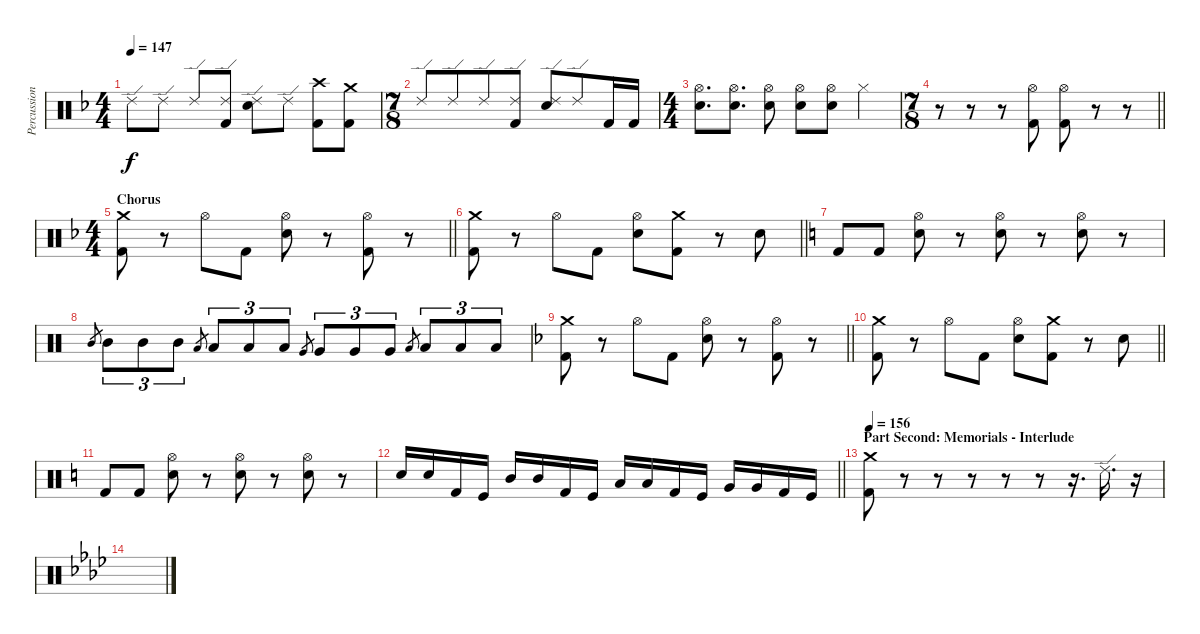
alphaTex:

\track ("Percussion" "Percussion") {instrument percussion}
\staff {score}
\articulation defaults
\ts (4 4)
\tempo 147
\clef neutral
\ks f "Ride (edge) 2".8{dy f} "Ride (edge) 2".8 "Ride (edge) 2".8
("Ride (edge) 2" "Kick (hit) 2").8 ("Ride (edge) 2" "Electric Snare (hit)").8 "Ride (edge) 2".8 ("Crash high (hit)" "Kick (hit) 2").8 ("Crash medium (hit)" "Kick (hit) 2").8 |
\ts (7 8)
"Ride (edge) 2".8 "Ride (edge) 2".8 "Ride (edge) 2".8 ("Ride (edge) 2" "Kick (hit) 2").8 ("Ride (edge) 2" "Electric Snare (hit)").8 "Ride (edge) 2".8 "Kick (hit) 2".16 "Kick (hit) 2".16 |
\ts (4 4)
("Hi-Hat (open)" "Electric Snare (hit)").8{d} ("Hi-Hat (open)" "Electric Snare (hit)").8{d} ("Hi-Hat (open)" "Electric Snare (hit)").8 ("Hi-Hat (open)" "Electric Snare (hit)").8 ("Hi-Hat (open)" "Electric Snare (hit)").8 "Hi-Hat (closed)".4 |
\ts (7 8)
\barLineRight lightlight
r.8 r.8 r.8 ("Hi-Hat (open)" "Kick (hit) 2").8 ("Hi-Hat (open)" "Kick (hit) 2").8 r.8 r.8 |
\ts (4 4)
\section ("" "Chorus")
\barLineRight lightlight
("Crash medium (hit)" "Kick (hit) 2").8 r.8 "Hi-Hat (open)".8 "Kick (hit) 2".8 ("Hi-Hat (open)" "Electric Snare (hit)").8 r.8 ("Hi-Hat (open)" "Kick (hit) 2").8 r.8 |
\barLineRight lightlight
("Crash medium (hit)" "Kick (hit) 2").8 r.8 "Hi-Hat (open)".8 "Kick (hit) 2".8 ("Hi-Hat (open)" "Electric Snare (hit)").8 ("Crash medium (hit)" "Kick (hit) 2").8 r.8 "Electric Snare (hit)".8 |
\ks c "Kick (hit) 2".8 "Kick (hit) 2".8
("Hi-Hat (open)" "Electric Snare (hit)").8 r.8 ("Hi-Hat (open)" "Electric Snare (hit)").8 r.8 ("Hi-Hat (open)" "Electric Snare (hit)").8 r.8 |
"Mid Tom (hit)".8{gr} "Mid Tom (hit)".8{tu (3 2)} "Mid Tom (hit)".8{tu (3 2)} "Mid Tom (hit)".8{tu (3 2)} "Low Tom (hit)".8{gr} "Low Tom (hit)".8{tu (3 2)} "Low Tom (hit)".8{tu (3 2)} "Low Tom (hit)".8{tu (3 2)} "Very Low Tom (hit)".8{gr} "Very Low Tom (hit)".8{tu (3 2)} "Very Low Tom (hit)".8{tu (3 2)} "Very Low Tom (hit)".8{tu (3 2)} "Low Floor Tom (hit)".8{gr} "Low Floor Tom (hit)".8{tu (3 2)} "Low Floor Tom (hit)".8{tu (3 2)} "Low Floor Tom (hit)".8{tu (3 2)} |
\barLineRight lightlight
\ks f
("Crash medium (hit)" "Kick (hit) 2").8 r.8 "Hi-Hat (open)".8 "Kick (hit) 2".8 ("Hi-Hat (open)" "Electric Snare (hit)").8 r.8 ("Hi-Hat (open)" "Kick (hit) 2").8 r.8 |
\barLineRight lightlight
("Crash medium (hit)" "Kick (hit) 2").8 r.8 "Hi-Hat (open)".8 "Kick (hit) 2".8 ("Hi-Hat (open)" "Electric Snare (hit)").8 ("Crash medium (hit)" "Kick (hit) 2").8 r.8 "Electric Snare (hit)".8 |
\ks c "Kick (hit) 2".8 "Kick (hit) 2".8
("Hi-Hat (open)" "Electric Snare (hit)").8 r.8 ("Hi-Hat (open)" "Electric Snare (hit)").8 r.8 ("Hi-Hat (open)" "Electric Snare (hit)").8 r.8 |
\barLineRight lightlight "Electric Snare (hit)".16 "Electric Snare (hit)".16 "Kick (hit) 2".16 "Kick (hit)".16 "Mid Tom (hit)".16 "Mid Tom (hit)".16 "Kick (hit) 2".16 "Kick (hit)".16 "Low Tom (hit)".16 "Low Tom (hit)".16 "Kick (hit) 2".16 "Kick (hit)".16 "Very Low Tom (hit)".16 "Very Low Tom (hit)".16 "Kick (hit) 2".16 "Kick (hit)".16
|
\section ("" "Part Second: Memorials - Interlude")
\tempo 156
("Crash medium (hit)" "Kick (hit) 2").8 r.8 r.8 r.8 r.8 r.8 r.16{d} "Ride (edge) 2".16{d} r.16 |
\ks ab
